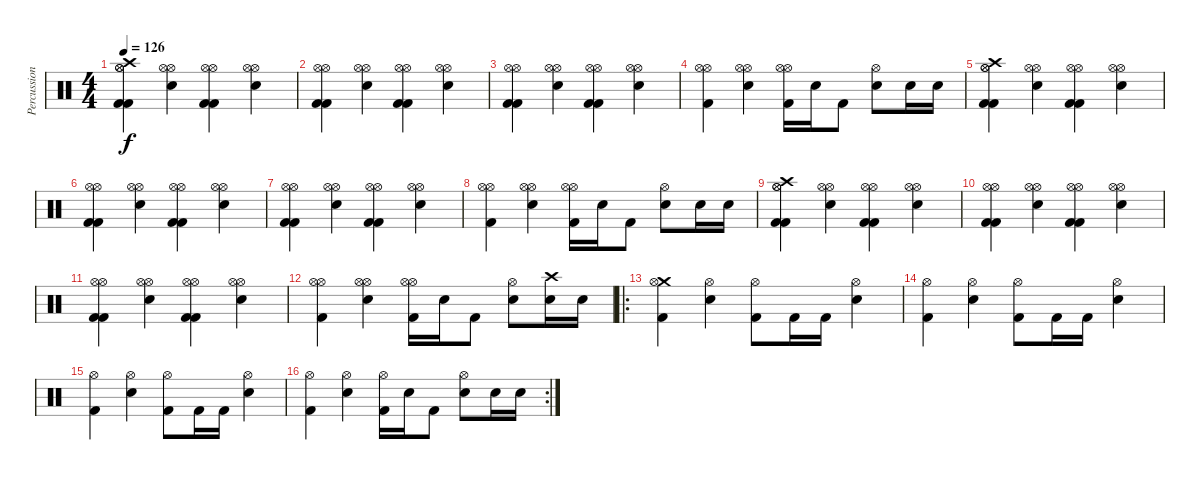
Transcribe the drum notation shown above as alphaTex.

\track ("Percussion" "Percussion") {instrument percussion}
\staff {score}
\articulation defaults
\ts (4 4)
\tempo 126
\clef neutral
\ks c
("Kick (hit) 2" "Kick (hit) 2" "Hi-Hat (open)" "Hi-Hat (open)" "Crash high (hit)").4{dy f} ("Hi-Hat (open)" "Snare (hit) 2" "Hi-Hat (open)").4 ("Kick (hit) 2" "Kick (hit) 2" "Hi-Hat (open)" "Hi-Hat (open)").4 ("Hi-Hat (open)" "Snare (hit) 2" "Hi-Hat (open)").4 |
("Kick (hit) 2" "Kick (hit) 2" "Hi-Hat (open)" "Hi-Hat (open)").4 ("Hi-Hat (open)" "Snare (hit) 2" "Hi-Hat (open)").4 ("Kick (hit) 2" "Kick (hit) 2" "Hi-Hat (open)" "Hi-Hat (open)").4 ("Hi-Hat (open)" "Snare (hit) 2" "Hi-Hat (open)").4 |
("Kick (hit) 2" "Kick (hit) 2" "Hi-Hat (open)" "Hi-Hat (open)").4 ("Hi-Hat (open)" "Snare (hit) 2" "Hi-Hat (open)").4 ("Kick (hit) 2" "Kick (hit) 2" "Hi-Hat (open)" "Hi-Hat (open)").4 ("Hi-Hat (open)" "Snare (hit) 2" "Hi-Hat (open)").4 |
("Kick (hit) 2" "Hi-Hat (open)" "Hi-Hat (open)").4 ("Hi-Hat (open)" "Snare (hit) 2" "Hi-Hat (open)").4 ("Kick (hit) 2" "Hi-Hat (open)" "Hi-Hat (open)").16 "Snare (hit) 2".16 "Kick (hit) 2".8 ("Snare (hit) 2" "Hi-Hat (open)").8 "Snare (hit) 2".16 "Snare (hit) 2".16 |
("Kick (hit) 2" "Kick (hit) 2" "Hi-Hat (open)" "Hi-Hat (open)" "Crash high (hit)").4 ("Hi-Hat (open)" "Snare (hit) 2" "Hi-Hat (open)").4 ("Kick (hit) 2" "Kick (hit) 2" "Hi-Hat (open)" "Hi-Hat (open)").4 ("Hi-Hat (open)" "Snare (hit) 2" "Hi-Hat (open)").4 |
("Kick (hit) 2" "Kick (hit) 2" "Hi-Hat (open)" "Hi-Hat (open)").4 ("Hi-Hat (open)" "Snare (hit) 2" "Hi-Hat (open)").4 ("Kick (hit) 2" "Kick (hit) 2" "Hi-Hat (open)" "Hi-Hat (open)").4 ("Hi-Hat (open)" "Snare (hit) 2" "Hi-Hat (open)").4 |
("Kick (hit) 2" "Kick (hit) 2" "Hi-Hat (open)" "Hi-Hat (open)").4 ("Hi-Hat (open)" "Snare (hit) 2" "Hi-Hat (open)").4 ("Kick (hit) 2" "Kick (hit) 2" "Hi-Hat (open)" "Hi-Hat (open)").4 ("Hi-Hat (open)" "Snare (hit) 2" "Hi-Hat (open)").4 |
("Kick (hit) 2" "Hi-Hat (open)" "Hi-Hat (open)").4 ("Hi-Hat (open)" "Snare (hit) 2" "Hi-Hat (open)").4 ("Kick (hit) 2" "Hi-Hat (open)" "Hi-Hat (open)").16 "Snare (hit) 2".16 "Kick (hit) 2".8 ("Snare (hit) 2" "Hi-Hat (open)").8 "Snare (hit) 2".16 "Snare (hit) 2".16 |
("Kick (hit) 2" "Kick (hit) 2" "Hi-Hat (open)" "Hi-Hat (open)" "Crash high (hit)").4 ("Hi-Hat (open)" "Snare (hit) 2" "Hi-Hat (open)").4 ("Kick (hit) 2" "Kick (hit) 2" "Hi-Hat (open)" "Hi-Hat (open)").4 ("Hi-Hat (open)" "Snare (hit) 2" "Hi-Hat (open)").4 |
("Kick (hit) 2" "Kick (hit) 2" "Hi-Hat (open)" "Hi-Hat (open)").4 ("Hi-Hat (open)" "Snare (hit) 2" "Hi-Hat (open)").4 ("Kick (hit) 2" "Kick (hit) 2" "Hi-Hat (open)" "Hi-Hat (open)").4 ("Hi-Hat (open)" "Snare (hit) 2" "Hi-Hat (open)").4 |
("Kick (hit) 2" "Kick (hit) 2" "Hi-Hat (open)" "Hi-Hat (open)").4 ("Hi-Hat (open)" "Snare (hit) 2" "Hi-Hat (open)").4 ("Kick (hit) 2" "Kick (hit) 2" "Hi-Hat (open)" "Hi-Hat (open)").4 ("Hi-Hat (open)" "Snare (hit) 2" "Hi-Hat (open)").4 |
("Kick (hit) 2" "Hi-Hat (open)" "Hi-Hat (open)").4 ("Hi-Hat (open)" "Snare (hit) 2" "Hi-Hat (open)").4 ("Kick (hit) 2" "Hi-Hat (open)" "Hi-Hat (open)").16 "Snare (hit) 2".16 "Kick (hit) 2".8 ("Snare (hit) 2" "Hi-Hat (open)").8 ("Crash high (hit)" "Snare (hit) 2").16 "Snare (hit) 2".16 |
\ro
("Kick (hit) 2" "Crash medium (hit)" "Hi-Hat (open)").4 ("Snare (hit) 2" "Hi-Hat (open)").4 ("Kick (hit) 2" "Hi-Hat (open)").8 "Kick (hit) 2".16 "Kick (hit) 2".16 ("Snare (hit) 2" "Hi-Hat (open)").4 |
("Kick (hit) 2" "Hi-Hat (open)").4 ("Snare (hit) 2" "Hi-Hat (open)").4 ("Kick (hit) 2" "Hi-Hat (open)").8 "Kick (hit) 2".16 "Kick (hit) 2".16 ("Snare (hit) 2" "Hi-Hat (open)").4 |
("Kick (hit) 2" "Hi-Hat (open)").4 ("Snare (hit) 2" "Hi-Hat (open)").4 ("Kick (hit) 2" "Hi-Hat (open)").8 "Kick (hit) 2".16 "Kick (hit) 2".16 ("Snare (hit) 2" "Hi-Hat (open)").4 |
\rc 2
("Kick (hit) 2" "Hi-Hat (open)").4 ("Snare (hit) 2" "Hi-Hat (open)").4 ("Kick (hit) 2" "Hi-Hat (open)").16 "Snare (hit) 2".16 "Kick (hit) 2".8 ("Snare (hit) 2" "Hi-Hat (open)").8 "Snare (hit) 2".16 "Snare (hit) 2".16
